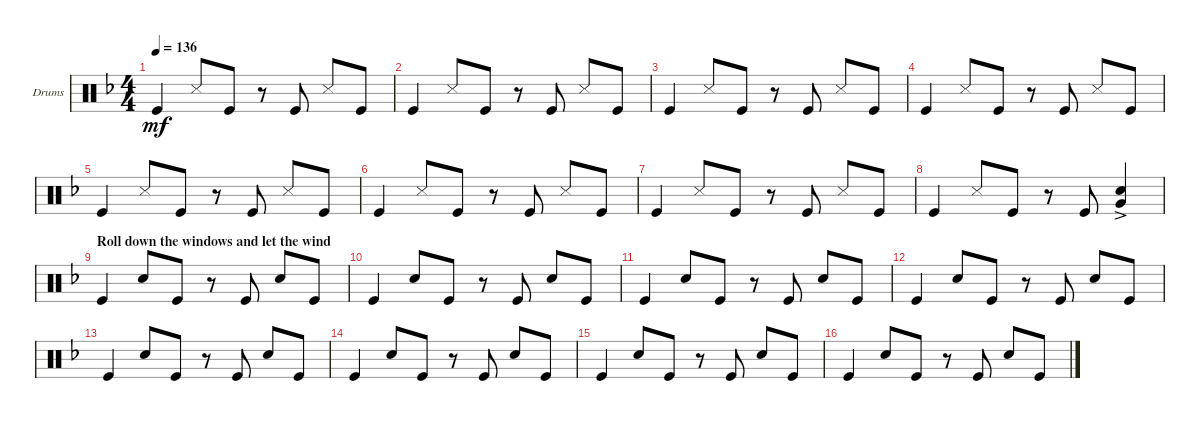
\bracketExtendMode groupsimilarinstruments
\firstSystemTrackNameOrientation horizontal
\otherSystemsTrackNameOrientation horizontal
\track ("Drumkit" "Drums") {instrument percussion}
\staff {score}
\articulation defaults
\ts (4 4)
\tempo 136
\clef neutral
\scale
0.333333
\ks f "Kick (hit)".4{dy mf} "Snare (side stick) 3".8 "Kick (hit)".8
r.8 "Kick (hit)".8 "Snare (side stick) 3".8 "Kick (hit)".8 |
\scale
0.333333 "Kick (hit)".4 "Snare (side stick) 3".8 "Kick (hit)".8 r.8 "Kick (hit)".8 "Snare (side stick) 3".8 "Kick (hit)".8 |
\scale
0.333333 "Kick (hit)".4 "Snare (side stick) 3".8 "Kick (hit)".8 r.8 "Kick (hit)".8 "Snare (side stick) 3".8 "Kick (hit)".8 |
\scale
0.333333 "Kick (hit)".4 "Snare (side stick) 3".8 "Kick (hit)".8 r.8 "Kick (hit)".8 "Snare (side stick) 3".8 "Kick (hit)".8 |
\scale
0.333333 "Kick (hit)".4 "Snare (side stick) 3".8 "Kick (hit)".8 r.8 "Kick (hit)".8 "Snare (side stick) 3".8 "Kick (hit)".8 |
\scale
0.333333 "Kick (hit)".4 "Snare (side stick) 3".8 "Kick (hit)".8 r.8 "Kick (hit)".8 "Snare (side stick) 3".8 "Kick (hit)".8 |
\scale
0.333333 "Kick (hit)".4 "Snare (side stick) 3".8 "Kick (hit)".8 r.8 "Kick (hit)".8 "Snare (side stick) 3".8 "Kick (hit)".8 |
\scale
0.333333 "Kick (hit)".4 "Snare (side stick) 3".8 "Kick (hit)".8 r.8 "Kick (hit)".8 ("Snare (hit) 2"{ac} "Very Low Tom (hit)").4 |
\section ("" "Roll down the windows and let the wind")
\scale
0.333333 "Kick (hit)".4 "Snare (hit) 2".8 "Kick (hit)".8 r.8 "Kick (hit)".8 "Snare (hit) 2".8 "Kick (hit)".8 |
\scale
0.333333 "Kick (hit)".4 "Snare (hit) 2".8 "Kick (hit)".8 r.8 "Kick (hit)".8 "Snare (hit) 2".8 "Kick (hit)".8 |
\scale
0.333333 "Kick (hit)".4 "Snare (hit) 2".8 "Kick (hit)".8 r.8 "Kick (hit)".8 "Snare (hit) 2".8 "Kick (hit)".8 |
\scale
0.333333 "Kick (hit)".4 "Snare (hit) 2".8 "Kick (hit)".8 r.8 "Kick (hit)".8 "Snare (hit) 2".8 "Kick (hit)".8 |
\scale
0.333333 "Kick (hit)".4 "Snare (hit) 2".8 "Kick (hit)".8 r.8 "Kick (hit)".8 "Snare (hit) 2".8 "Kick (hit)".8 |
\scale
0.333333 "Kick (hit)".4 "Snare (hit) 2".8 "Kick (hit)".8 r.8 "Kick (hit)".8 "Snare (hit) 2".8 "Kick (hit)".8 |
\scale
0.333333 "Kick (hit)".4 "Snare (hit) 2".8 "Kick (hit)".8 r.8 "Kick (hit)".8 "Snare (hit) 2".8 "Kick (hit)".8 |
\scale
0.333333 "Kick (hit)".4 "Snare (hit) 2".8 "Kick (hit)".8 r.8 "Kick (hit)".8 "Snare (hit) 2".8 "Kick (hit)".8
